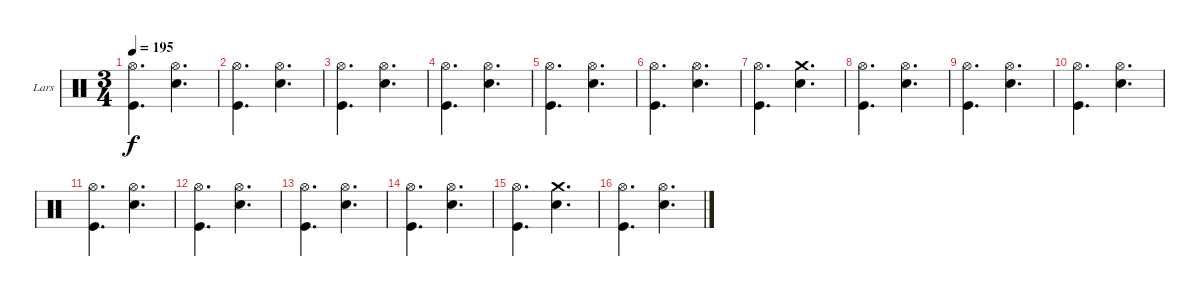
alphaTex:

\bracketExtendMode groupsimilarinstruments
\firstSystemTrackNameOrientation horizontal
\otherSystemsTrackNameOrientation horizontal
\track ("Drumkit" "Lars") {instrument percussion}
\staff {score}
\articulation defaults
\ts (3 4)
\tempo 195
\clef neutral
\ks c
("Hi-Hat (open)" "Kick (hit)").4{d dy f} ("Hi-Hat (open)" "Snare (hit) 2").4{d} |
("Hi-Hat (open)" "Kick (hit)").4{d} ("Hi-Hat (open)" "Snare (hit) 2").4{d} |
("Hi-Hat (open)" "Kick (hit)").4{d} ("Hi-Hat (open)" "Snare (hit) 2").4{d} |
("Hi-Hat (open)" "Kick (hit)").4{d} ("Hi-Hat (open)" "Snare (hit) 2").4{d} |
("Hi-Hat (open)" "Kick (hit)").4{d} ("Hi-Hat (open)" "Snare (hit) 2").4{d} |
("Hi-Hat (open)" "Kick (hit)").4{d} ("Hi-Hat (open)" "Snare (hit) 2").4{d} |
("Hi-Hat (open)" "Kick (hit)").4{d} ("Crash medium (hit)" "Snare (hit) 2").4{d} |
("Hi-Hat (open)" "Kick (hit)").4{d} ("Hi-Hat (open)" "Snare (hit) 2").4{d} |
("Hi-Hat (open)" "Kick (hit)").4{d} ("Hi-Hat (open)" "Snare (hit) 2").4{d} |
("Hi-Hat (open)" "Kick (hit)").4{d} ("Hi-Hat (open)" "Snare (hit) 2").4{d} |
("Hi-Hat (open)" "Kick (hit)").4{d} ("Hi-Hat (open)" "Snare (hit) 2").4{d} |
("Hi-Hat (open)" "Kick (hit)").4{d} ("Hi-Hat (open)" "Snare (hit) 2").4{d} |
("Hi-Hat (open)" "Kick (hit)").4{d} ("Hi-Hat (open)" "Snare (hit) 2").4{d} |
("Hi-Hat (open)" "Kick (hit)").4{d} ("Hi-Hat (open)" "Snare (hit) 2").4{d} |
("Hi-Hat (open)" "Kick (hit)").4{d} ("Crash medium (hit)" "Snare (hit) 2").4{d} |
("Hi-Hat (open)" "Kick (hit)").4{d} ("Hi-Hat (open)" "Snare (hit) 2").4{d}
